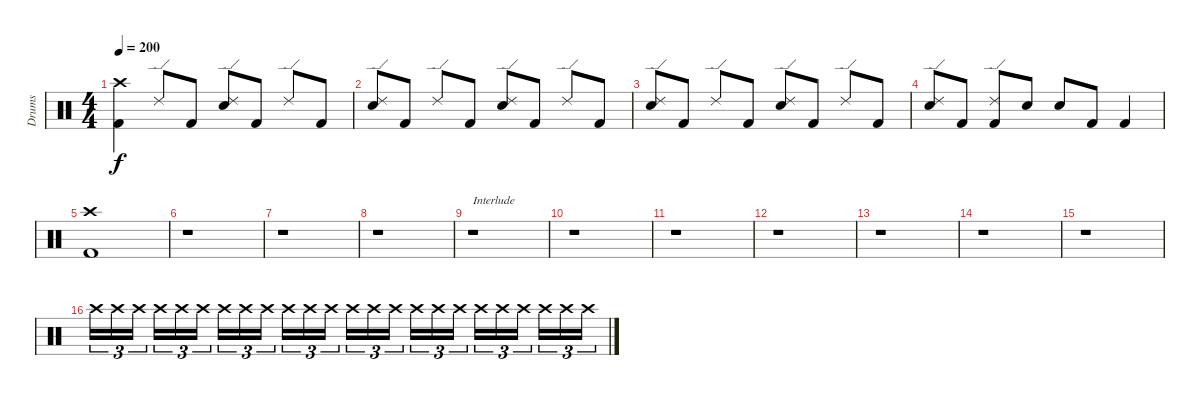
\track ("Drums" "Drums") {instrument percussion}
\staff {score}
\articulation defaults
\ts (4 4)
\tempo 200
\clef neutral
\ks c
("Crash high (hit)" "Kick (hit) 2").4{dy f} "Ride (edge) 2".8 "Kick (hit) 2".8 ("Ride (edge) 2" "Electric Snare (hit)").8 "Kick (hit) 2".8 "Ride (edge) 2".8 "Kick (hit) 2".8 |
("Ride (edge) 2" "Electric Snare (hit)").8 "Kick (hit) 2".8 "Ride (edge) 2".8 "Kick (hit) 2".8 ("Ride (edge) 2" "Electric Snare (hit)").8 "Kick (hit) 2".8 "Ride (edge) 2".8 "Kick (hit) 2".8 |
("Ride (edge) 2" "Electric Snare (hit)").8 "Kick (hit) 2".8 "Ride (edge) 2".8 "Kick (hit) 2".8 ("Ride (edge) 2" "Electric Snare (hit)").8 "Kick (hit) 2".8 "Ride (edge) 2".8 "Kick (hit) 2".8 |
("Ride (edge) 2" "Electric Snare (hit)").8 "Kick (hit) 2".8 ("Ride (edge) 2" "Kick (hit) 2").8 "Electric Snare (hit)".8 "Electric Snare (hit)".8 "Kick (hit) 2".8 "Kick (hit) 2".4 |
("Crash high (hit)" "Kick (hit) 2").1 |
r.1 |
r.1 |
r.1 |
r.1{txt "Interlude"} |
r.1 |
r.1 |
r.1 |
r.1 |
r.1 |
r.1{volume 0} |
"Crash high (hit)".16{tu (3 2) volume 16} "Crash high (hit)".16{tu (3 2)} "Crash high (hit)".16{tu (3 2)} "Crash high (hit)".16{tu (3 2)} "Crash high (hit)".16{tu (3 2)} "Crash high (hit)".16{tu (3 2)} "Crash high (hit)".16{tu (3 2)} "Crash high (hit)".16{tu (3 2)} "Crash high (hit)".16{tu (3 2)} "Crash high (hit)".16{tu (3 2)} "Crash high (hit)".16{tu (3 2)} "Crash high (hit)".16{tu (3 2)} "Crash high (hit)".16{tu (3 2)} "Crash high (hit)".16{tu (3 2)} "Crash high (hit)".16{tu (3 2)} "Crash high (hit)".16{tu (3 2)} "Crash high (hit)".16{tu (3 2)} "Crash high (hit)".16{tu (3 2)} "Crash high (hit)".16{tu (3 2)} "Crash high (hit)".16{tu (3 2)} "Crash high (hit)".16{tu (3 2)} "Crash high (hit)".16{tu (3 2)} "Crash high (hit)".16{tu (3 2)} "Crash high (hit)".16{tu (3 2)}
